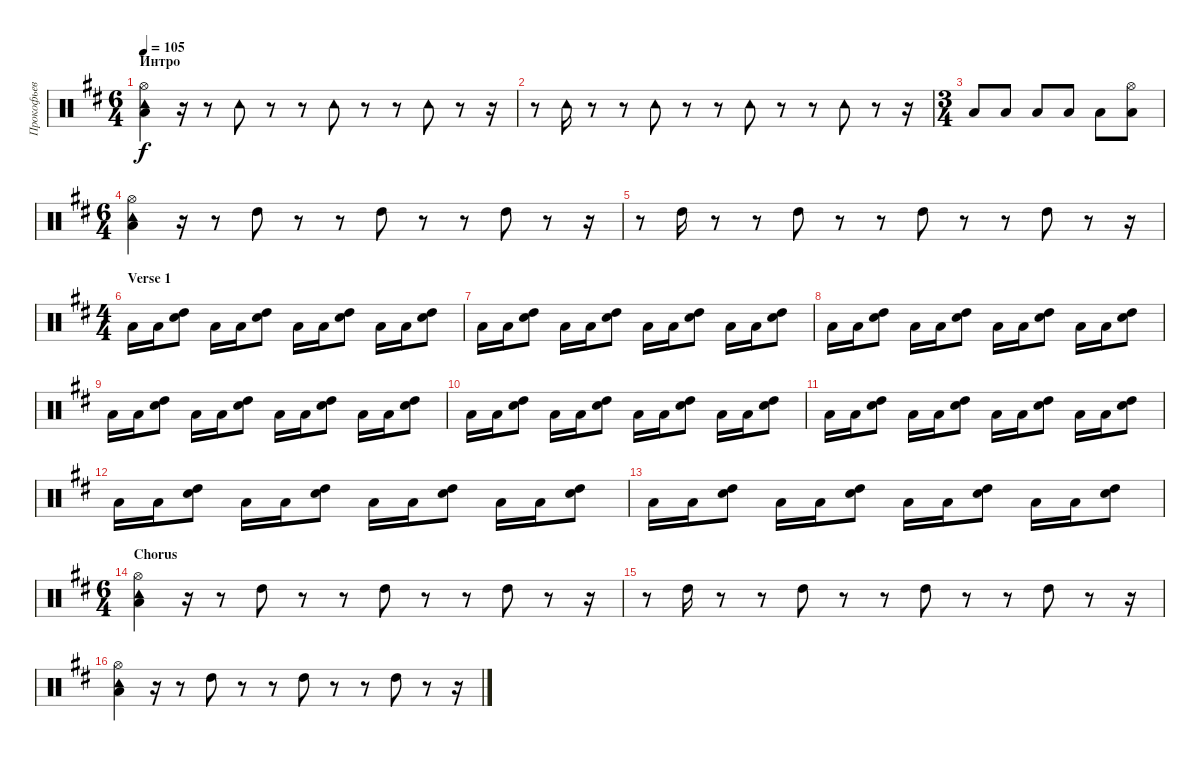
\track ("Прокофьев" "Прокофьев") {instrument percussion}
\staff {score}
\articulation defaults
\ts (6 4)
\section ("" "Интро")
\tempo 105
\clef neutral
\ks d
("Tambourine (hit)" "Hi-Hat (open)" "Low Tom (hit)").4{dy f} r.16 r.8 "Tambourine (hit)".8 r.8 r.8 "Tambourine (hit)".8 r.8 r.8 "Tambourine (hit)".8 r.8 r.16 |
r.8 "Tambourine (hit)".16 r.8 r.8 "Tambourine (hit)".8 r.8 r.8 "Tambourine (hit)".8 r.8 r.8 "Tambourine (hit)".8 r.8 r.16 |
\ts (3 4)
"Low Tom (hit)".8 "Low Tom (hit)".8 "Low Tom (hit)".8 "Low Tom (hit)".8 "Low Tom (hit)".8 ("Low Tom (hit)" "Hi-Hat (open)").8 |
\ts (6 4)
("Tambourine (hit)" "Hi-Hat (open)" "Low Tom (hit)").4 r.16 r.8 "High Tom (hit)".8 r.8 r.8 "High Tom (hit)".8 r.8 r.8 "High Tom (hit)".8 r.8 r.16 |
r.8 "High Tom (hit)".16 r.8 r.8 "High Tom (hit)".8 r.8 r.8 "High Tom (hit)".8 r.8 r.8 "High Tom (hit)".8 r.8 r.16 |
\ts (4 4)
\section ("" "Verse 1")
"Low Tom (hit)".16 "Low Tom (hit)".16 ("High Tom (hit)" "Snare (hit) 2").8 "Low Tom (hit)".16 "Low Tom (hit)".16 ("High Tom (hit)" "Snare (hit) 2").8 "Low Tom (hit)".16 "Low Tom (hit)".16 ("High Tom (hit)" "Snare (hit) 2").8 "Low Tom (hit)".16 "Low Tom (hit)".16 ("High Tom (hit)" "Snare (hit) 2").8 |
"Low Tom (hit)".16 "Low Tom (hit)".16 ("High Tom (hit)" "Snare (hit) 2").8 "Low Tom (hit)".16 "Low Tom (hit)".16 ("High Tom (hit)" "Snare (hit) 2").8 "Low Tom (hit)".16 "Low Tom (hit)".16 ("High Tom (hit)" "Snare (hit) 2").8 "Low Tom (hit)".16 "Low Tom (hit)".16 ("High Tom (hit)" "Snare (hit) 2").8 |
"Low Tom (hit)".16 "Low Tom (hit)".16 ("High Tom (hit)" "Snare (hit) 2").8 "Low Tom (hit)".16 "Low Tom (hit)".16 ("High Tom (hit)" "Snare (hit) 2").8 "Low Tom (hit)".16 "Low Tom (hit)".16 ("High Tom (hit)" "Snare (hit) 2").8 "Low Tom (hit)".16 "Low Tom (hit)".16 ("High Tom (hit)" "Snare (hit) 2").8 |
"Low Tom (hit)".16 "Low Tom (hit)".16 ("High Tom (hit)" "Snare (hit) 2").8 "Low Tom (hit)".16 "Low Tom (hit)".16 ("High Tom (hit)" "Snare (hit) 2").8 "Low Tom (hit)".16 "Low Tom (hit)".16 ("High Tom (hit)" "Snare (hit) 2").8 "Low Tom (hit)".16 "Low Tom (hit)".16 ("High Tom (hit)" "Snare (hit) 2").8 |
"Low Tom (hit)".16 "Low Tom (hit)".16 ("High Tom (hit)" "Snare (hit) 2").8 "Low Tom (hit)".16 "Low Tom (hit)".16 ("High Tom (hit)" "Snare (hit) 2").8 "Low Tom (hit)".16 "Low Tom (hit)".16 ("High Tom (hit)" "Snare (hit) 2").8 "Low Tom (hit)".16 "Low Tom (hit)".16 ("High Tom (hit)" "Snare (hit) 2").8 |
"Low Tom (hit)".16 "Low Tom (hit)".16 ("High Tom (hit)" "Snare (hit) 2").8 "Low Tom (hit)".16 "Low Tom (hit)".16 ("High Tom (hit)" "Snare (hit) 2").8 "Low Tom (hit)".16 "Low Tom (hit)".16 ("High Tom (hit)" "Snare (hit) 2").8 "Low Tom (hit)".16 "Low Tom (hit)".16 ("High Tom (hit)" "Snare (hit) 2").8 |
"Low Tom (hit)".16 "Low Tom (hit)".16 ("High Tom (hit)" "Snare (hit) 2").8 "Low Tom (hit)".16 "Low Tom (hit)".16 ("High Tom (hit)" "Snare (hit) 2").8 "Low Tom (hit)".16 "Low Tom (hit)".16 ("High Tom (hit)" "Snare (hit) 2").8 "Low Tom (hit)".16 "Low Tom (hit)".16 ("High Tom (hit)" "Snare (hit) 2").8 |
"Low Tom (hit)".16 "Low Tom (hit)".16 ("High Tom (hit)" "Snare (hit) 2").8 "Low Tom (hit)".16 "Low Tom (hit)".16 ("High Tom (hit)" "Snare (hit) 2").8 "Low Tom (hit)".16 "Low Tom (hit)".16 ("High Tom (hit)" "Snare (hit) 2").8 "Low Tom (hit)".16 "Low Tom (hit)".16 ("High Tom (hit)" "Snare (hit) 2").8 |
\ts (6 4)
\section ("" "Chorus")
("Tambourine (hit)" "Hi-Hat (open)" "Low Tom (hit)").4 r.16 r.8 "High Tom (hit)".8 r.8 r.8 "High Tom (hit)".8 r.8 r.8 "High Tom (hit)".8 r.8 r.16 |
r.8 "High Tom (hit)".16 r.8 r.8 "High Tom (hit)".8 r.8 r.8 "High Tom (hit)".8 r.8 r.8 "High Tom (hit)".8 r.8 r.16 |
("Tambourine (hit)" "Hi-Hat (open)" "Low Tom (hit)").4 r.16 r.8 "High Tom (hit)".8 r.8 r.8 "High Tom (hit)".8 r.8 r.8 "High Tom (hit)".8 r.8 r.16
